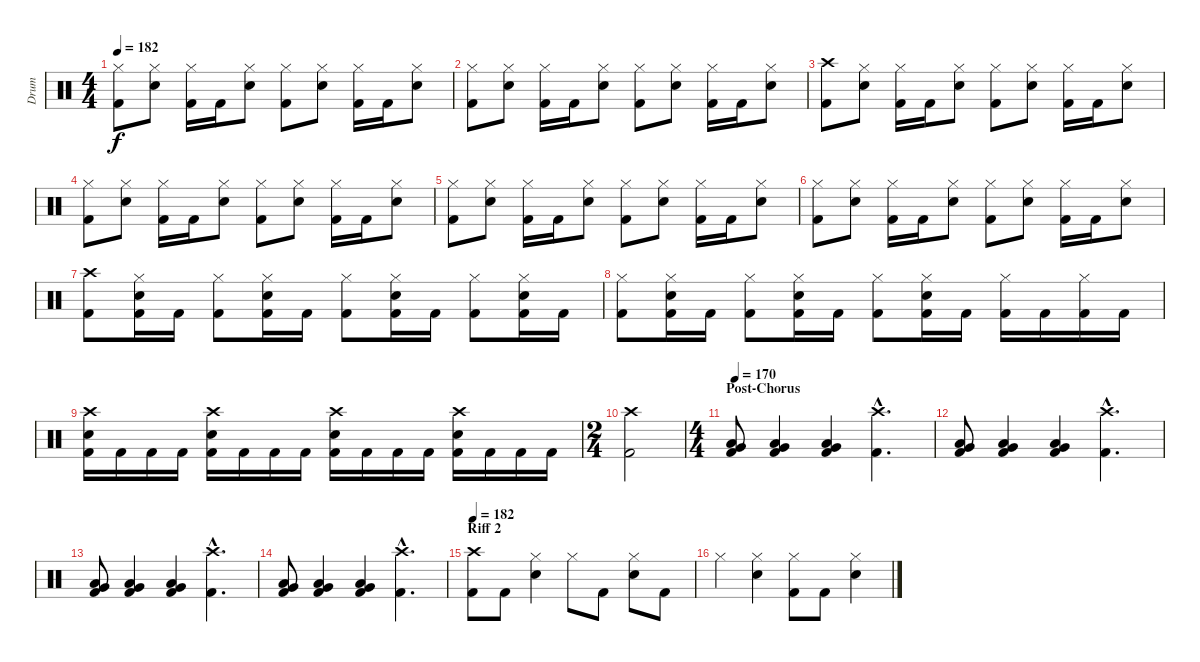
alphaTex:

\track ("Drum" "Drum") {instrument percussion}
\staff {score}
\articulation defaults
\ts (4 4)
\tempo 182
\clef neutral
\ks c
("Hi-Hat (closed)" "Kick (hit) 2").8{dy f} ("Hi-Hat (closed)" "Electric Snare (hit)").8 ("Hi-Hat (closed)" "Kick (hit) 2").16 "Kick (hit) 2".16 ("Hi-Hat (closed)" "Electric Snare (hit)").8 ("Hi-Hat (closed)" "Kick (hit) 2").8 ("Hi-Hat (closed)" "Electric Snare (hit)").8 ("Hi-Hat (closed)" "Kick (hit) 2").16 "Kick (hit) 2".16 ("Hi-Hat (closed)" "Electric Snare (hit)").8 |
("Hi-Hat (closed)" "Kick (hit) 2").8 ("Hi-Hat (closed)" "Electric Snare (hit)").8 ("Hi-Hat (closed)" "Kick (hit) 2").16 "Kick (hit) 2".16 ("Hi-Hat (closed)" "Electric Snare (hit)").8 ("Hi-Hat (closed)" "Kick (hit) 2").8 ("Hi-Hat (closed)" "Electric Snare (hit)").8 ("Hi-Hat (closed)" "Kick (hit) 2").16 "Kick (hit) 2".16 ("Hi-Hat (closed)" "Electric Snare (hit)").8 |
("Crash high (hit)" "Kick (hit) 2").8 ("Hi-Hat (closed)" "Electric Snare (hit)").8 ("Hi-Hat (closed)" "Kick (hit) 2").16 "Kick (hit) 2".16 ("Hi-Hat (closed)" "Electric Snare (hit)").8 ("Hi-Hat (closed)" "Kick (hit) 2").8 ("Hi-Hat (closed)" "Electric Snare (hit)").8 ("Hi-Hat (closed)" "Kick (hit) 2").16 "Kick (hit) 2".16 ("Hi-Hat (closed)" "Electric Snare (hit)").8 |
("Hi-Hat (closed)" "Kick (hit) 2").8 ("Hi-Hat (closed)" "Electric Snare (hit)").8 ("Hi-Hat (closed)" "Kick (hit) 2").16 "Kick (hit) 2".16 ("Hi-Hat (closed)" "Electric Snare (hit)").8 ("Hi-Hat (closed)" "Kick (hit) 2").8 ("Hi-Hat (closed)" "Electric Snare (hit)").8 ("Hi-Hat (closed)" "Kick (hit) 2").16 "Kick (hit) 2".16 ("Hi-Hat (closed)" "Electric Snare (hit)").8 |
("Hi-Hat (closed)" "Kick (hit) 2").8 ("Hi-Hat (closed)" "Electric Snare (hit)").8 ("Hi-Hat (closed)" "Kick (hit) 2").16 "Kick (hit) 2".16 ("Hi-Hat (closed)" "Electric Snare (hit)").8 ("Hi-Hat (closed)" "Kick (hit) 2").8 ("Hi-Hat (closed)" "Electric Snare (hit)").8 ("Hi-Hat (closed)" "Kick (hit) 2").16 "Kick (hit) 2".16 ("Hi-Hat (closed)" "Electric Snare (hit)").8 |
("Hi-Hat (closed)" "Kick (hit) 2").8 ("Hi-Hat (closed)" "Electric Snare (hit)").8 ("Hi-Hat (closed)" "Kick (hit) 2").16 "Kick (hit) 2".16 ("Hi-Hat (closed)" "Electric Snare (hit)").8 ("Hi-Hat (closed)" "Kick (hit) 2").8 ("Hi-Hat (closed)" "Electric Snare (hit)").8 ("Hi-Hat (closed)" "Kick (hit) 2").16 "Kick (hit) 2".16 ("Hi-Hat (closed)" "Electric Snare (hit)").8 |
("Crash high (hit)" "Kick (hit) 2").8 ("Hi-Hat (closed)" "Electric Snare (hit)" "Kick (hit) 2").16 "Kick (hit) 2".16 ("Hi-Hat (closed)" "Kick (hit) 2").8 ("Hi-Hat (closed)" "Electric Snare (hit)" "Kick (hit) 2").16 "Kick (hit) 2".16 ("Hi-Hat (closed)" "Kick (hit) 2").8 ("Hi-Hat (closed)" "Electric Snare (hit)" "Kick (hit) 2").16 "Kick (hit) 2".16 ("Hi-Hat (closed)" "Kick (hit) 2").8 ("Hi-Hat (closed)" "Electric Snare (hit)" "Kick (hit) 2").16 "Kick (hit) 2".16 |
("Hi-Hat (closed)" "Kick (hit) 2").8 ("Hi-Hat (closed)" "Electric Snare (hit)" "Kick (hit) 2").16 "Kick (hit) 2".16 ("Hi-Hat (closed)" "Kick (hit) 2").8 ("Hi-Hat (closed)" "Electric Snare (hit)" "Kick (hit) 2").16 "Kick (hit) 2".16 ("Hi-Hat (closed)" "Kick (hit) 2").8 ("Hi-Hat (closed)" "Electric Snare (hit)" "Kick (hit) 2").16 "Kick (hit) 2".16 ("Hi-Hat (closed)" "Kick (hit) 2").16 "Kick (hit) 2".16 ("Hi-Hat (closed)" "Kick (hit) 2").16 "Kick (hit) 2".16 |
("Crash high (hit)" "Electric Snare (hit)" "Kick (hit) 2").16 "Kick (hit) 2".16 "Kick (hit) 2".16 "Kick (hit) 2".16 ("Crash high (hit)" "Electric Snare (hit)" "Kick (hit) 2").16 "Kick (hit) 2".16 "Kick (hit) 2".16 "Kick (hit) 2".16 ("Crash high (hit)" "Electric Snare (hit)" "Kick (hit) 2").16 "Kick (hit) 2".16 "Kick (hit) 2".16 "Kick (hit) 2".16 ("Crash high (hit)" "Electric Snare (hit)" "Kick (hit) 2").16 "Kick (hit) 2".16 "Kick (hit) 2".16 "Kick (hit) 2".16 |
\ts (2 4)
("Crash high (hit)" "Kick (hit) 2").2 |
\ts (4 4)
\section ("" "Post-Chorus")
\tempo 170
("Very Low Tom (hit)" "Low Tom (hit)" "Kick (hit) 2").8 ("Very Low Tom (hit)" "Low Tom (hit)" "Kick (hit) 2").4 ("Very Low Tom (hit)" "Low Tom (hit)" "Kick (hit) 2").4 ("Crash high (hit)"{hac} "Kick (hit) 2"{hac}).4{d} |
("Very Low Tom (hit)" "Low Tom (hit)" "Kick (hit) 2").8 ("Very Low Tom (hit)" "Low Tom (hit)" "Kick (hit) 2").4 ("Very Low Tom (hit)" "Low Tom (hit)" "Kick (hit) 2").4 ("Crash high (hit)"{hac} "Kick (hit) 2"{hac}).4{d} |
("Very Low Tom (hit)" "Low Tom (hit)" "Kick (hit) 2").8 ("Very Low Tom (hit)" "Low Tom (hit)" "Kick (hit) 2").4 ("Very Low Tom (hit)" "Low Tom (hit)" "Kick (hit) 2").4 ("Crash high (hit)"{hac} "Kick (hit) 2"{hac}).4{d} |
("Very Low Tom (hit)" "Low Tom (hit)" "Kick (hit) 2").8 ("Very Low Tom (hit)" "Low Tom (hit)" "Kick (hit) 2").4 ("Very Low Tom (hit)" "Low Tom (hit)" "Kick (hit) 2").4 ("Crash high (hit)"{hac} "Kick (hit) 2"{hac}).4{d} |
\section ("" "Riff 2")
\tempo 182
("Crash high (hit)" "Kick (hit) 2").8 "Kick (hit) 2".8 ("Hi-Hat (closed)" "Electric Snare (hit)").4 "Hi-Hat (closed)".8 "Kick (hit) 2".8 ("Hi-Hat (closed)" "Electric Snare (hit)").8 "Kick (hit) 2".8 |
"Hi-Hat (closed)".4 ("Hi-Hat (closed)" "Electric Snare (hit)").4 ("Hi-Hat (closed)" "Kick (hit) 2").8 "Kick (hit) 2".8 ("Hi-Hat (closed)" "Electric Snare (hit)").4
